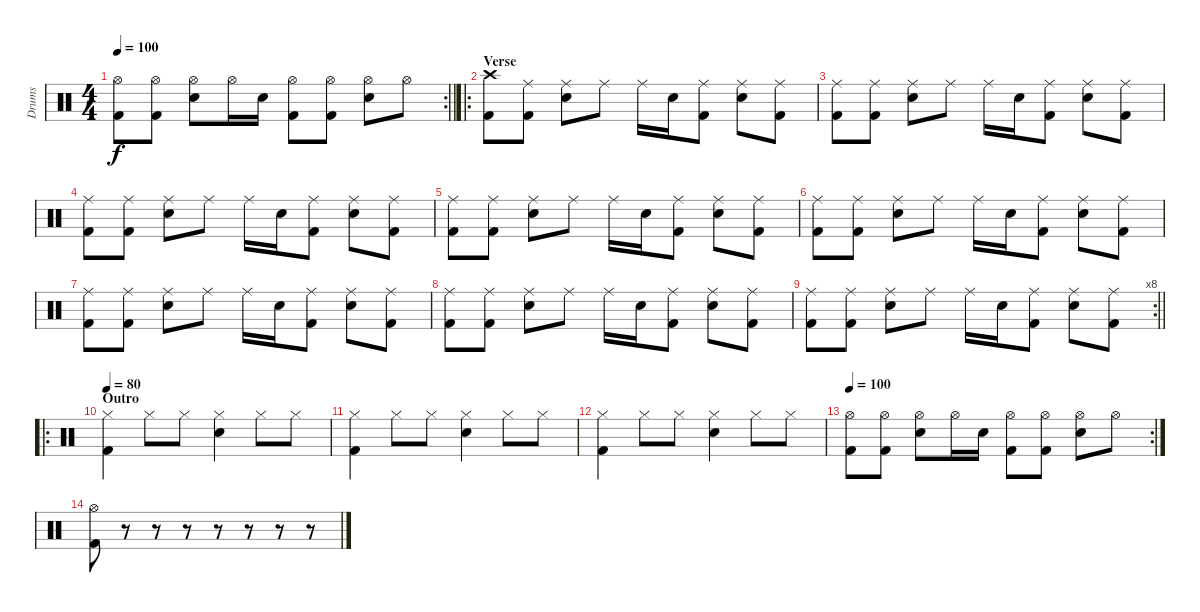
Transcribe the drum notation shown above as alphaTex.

\track ("Drums" "Drums") {instrument percussion}
\staff {score}
\articulation defaults
\rc 2
\ts (4 4)
\tempo 100
\clef neutral
\barLineRight lightlight
\ks c
("Hi-Hat (open)" "Kick (hit) 2").8{dy f} ("Hi-Hat (open)" "Kick (hit) 2").8 ("Hi-Hat (open)" "Electric Snare (hit)").8 "Hi-Hat (open)".16 "Electric Snare (hit)".16 ("Hi-Hat (open)" "Kick (hit) 2").8 ("Hi-Hat (open)" "Kick (hit) 2").8 ("Hi-Hat (open)" "Electric Snare (hit)").8 "Hi-Hat (open)".8 |
\ro
\section ("" "Verse")
("Crash high (hit)" "Kick (hit) 2").8 ("Ride (middle)" "Kick (hit) 2").8 ("Ride (middle)" "Electric Snare (hit)").8 "Ride (middle)".8 "Ride (middle)".16 "Electric Snare (hit)".16 ("Ride (middle)" "Kick (hit) 2").8 ("Ride (middle)" "Electric Snare (hit)").8 ("Ride (middle)" "Kick (hit) 2").8 |
("Ride (middle)" "Kick (hit) 2").8 ("Ride (middle)" "Kick (hit) 2").8 ("Ride (middle)" "Electric Snare (hit)").8 "Ride (middle)".8 "Ride (middle)".16 "Electric Snare (hit)".16 ("Ride (middle)" "Kick (hit) 2").8 ("Ride (middle)" "Electric Snare (hit)").8 ("Ride (middle)" "Kick (hit) 2").8 |
("Ride (middle)" "Kick (hit) 2").8 ("Ride (middle)" "Kick (hit) 2").8 ("Ride (middle)" "Electric Snare (hit)").8 "Ride (middle)".8 "Ride (middle)".16 "Electric Snare (hit)".16 ("Ride (middle)" "Kick (hit) 2").8 ("Ride (middle)" "Electric Snare (hit)").8 ("Ride (middle)" "Kick (hit) 2").8 |
("Ride (middle)" "Kick (hit) 2").8 ("Ride (middle)" "Kick (hit) 2").8 ("Ride (middle)" "Electric Snare (hit)").8 "Ride (middle)".8 "Ride (middle)".16 "Electric Snare (hit)".16 ("Ride (middle)" "Kick (hit) 2").8 ("Ride (middle)" "Electric Snare (hit)").8 ("Ride (middle)" "Kick (hit) 2").8 |
("Ride (middle)" "Kick (hit) 2").8 ("Ride (middle)" "Kick (hit) 2").8 ("Ride (middle)" "Electric Snare (hit)").8 "Ride (middle)".8 "Ride (middle)".16 "Electric Snare (hit)".16 ("Ride (middle)" "Kick (hit) 2").8 ("Ride (middle)" "Electric Snare (hit)").8 ("Ride (middle)" "Kick (hit) 2").8 |
("Ride (middle)" "Kick (hit) 2").8 ("Ride (middle)" "Kick (hit) 2").8 ("Ride (middle)" "Electric Snare (hit)").8 "Ride (middle)".8 "Ride (middle)".16 "Electric Snare (hit)".16 ("Ride (middle)" "Kick (hit) 2").8 ("Ride (middle)" "Electric Snare (hit)").8 ("Ride (middle)" "Kick (hit) 2").8 |
("Ride (middle)" "Kick (hit) 2").8 ("Ride (middle)" "Kick (hit) 2").8 ("Ride (middle)" "Electric Snare (hit)").8 "Ride (middle)".8 "Ride (middle)".16 "Electric Snare (hit)".16 ("Ride (middle)" "Kick (hit) 2").8 ("Ride (middle)" "Electric Snare (hit)").8 ("Ride (middle)" "Kick (hit) 2").8 |
\rc 8
\barLineRight lightlight
("Ride (middle)" "Kick (hit) 2").8 ("Ride (middle)" "Kick (hit) 2").8 ("Ride (middle)" "Electric Snare (hit)").8 "Ride (middle)".8 "Ride (middle)".16 "Electric Snare (hit)".16 ("Ride (middle)" "Kick (hit) 2").8 ("Ride (middle)" "Electric Snare (hit)").8 ("Ride (middle)" "Kick (hit) 2").8 |
\ro
\section ("" "Outro")
\tempo 80
("Hi-Hat (closed)" "Kick (hit) 2").4 "Hi-Hat (closed)".8 "Hi-Hat (closed)".8 ("Hi-Hat (closed)" "Electric Snare (hit)").4 "Hi-Hat (closed)".8 "Hi-Hat (closed)".8 |
("Hi-Hat (closed)" "Kick (hit) 2").4 "Hi-Hat (closed)".8 "Hi-Hat (closed)".8 ("Hi-Hat (closed)" "Electric Snare (hit)").4 "Hi-Hat (closed)".8 "Hi-Hat (closed)".8 |
("Hi-Hat (closed)" "Kick (hit) 2").4 "Hi-Hat (closed)".8 "Hi-Hat (closed)".8 ("Hi-Hat (closed)" "Electric Snare (hit)").4 "Hi-Hat (closed)".8 "Hi-Hat (closed)".8 |
\rc 2
\tempo 100
("Hi-Hat (open)" "Kick (hit) 2").8 ("Hi-Hat (open)" "Kick (hit) 2").8 ("Hi-Hat (open)" "Electric Snare (hit)").8 "Hi-Hat (open)".16 "Electric Snare (hit)".16 ("Hi-Hat (open)" "Kick (hit) 2").8 ("Hi-Hat (open)" "Kick (hit) 2").8 ("Hi-Hat (open)" "Electric Snare (hit)").8 "Hi-Hat (open)".8 |
("Hi-Hat (open)" "Kick (hit) 2").8 r.8 r.8 r.8 r.8 r.8 r.8 r.8
